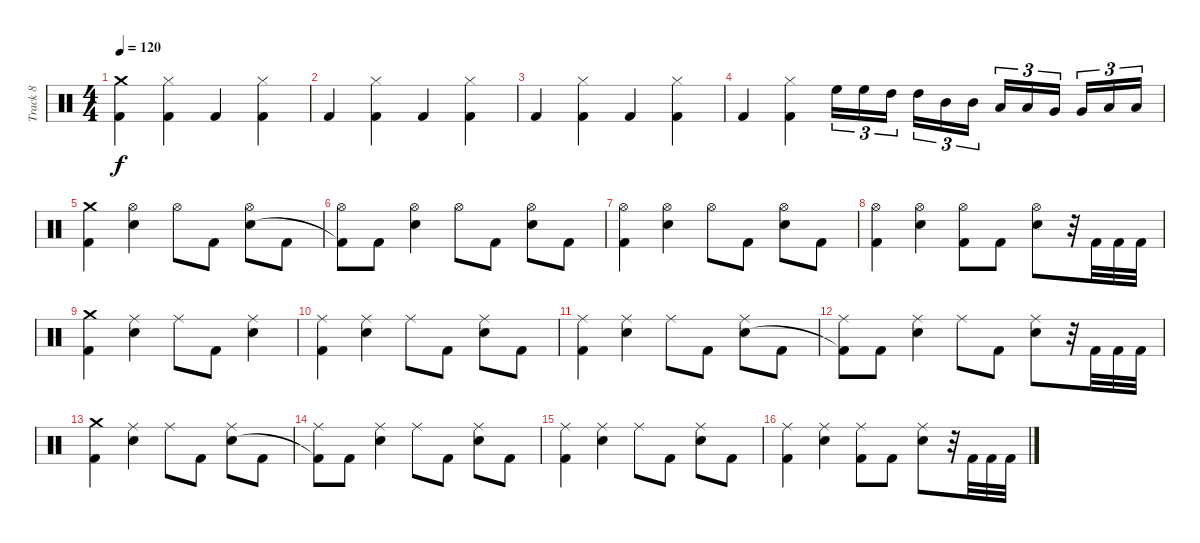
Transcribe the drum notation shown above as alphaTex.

\track ("Track 8" "Track 8") {instrument percussion}
\staff {score}
\articulation defaults
\ts (4 4)
\tempo 120
\clef neutral
\ks c
("Crash medium (hit)" "Kick (hit) 2").4{dy f} ("Hi-Hat (closed)" "Kick (hit) 2").4 "Kick (hit) 2".4 ("Hi-Hat (closed)" "Kick (hit) 2").4 |
"Kick (hit) 2".4 ("Hi-Hat (closed)" "Kick (hit) 2").4 "Kick (hit) 2".4 ("Hi-Hat (closed)" "Kick (hit) 2").4 |
"Kick (hit) 2".4 ("Hi-Hat (closed)" "Kick (hit) 2").4 "Kick (hit) 2".4 ("Hi-Hat (closed)" "Kick (hit) 2").4 |
"Kick (hit) 2".4 ("Hi-Hat (closed)" "Kick (hit) 2").4 "High Floor Tom (hit)".16{tu (3 2)} "High Floor Tom (hit)".16{tu (3 2)} "High Tom (hit)".16{tu (3 2) beam splitsecondary} "High Tom (hit)".16{tu (3 2)} "Mid Tom (hit)".16{tu (3 2)} "Mid Tom (hit)".16{tu (3 2)} "Low Tom (hit)".16{tu (3 2)} "Low Tom (hit)".16{tu (3 2)} "Very Low Tom (hit)".16{tu (3 2) beam splitsecondary} "Very Low Tom (hit)".16{tu (3 2)} "Low Floor Tom (hit)".16{tu (3 2)} "Low Floor Tom (hit)".16{tu (3 2)} |
("Crash medium (hit)" "Kick (hit) 2").4 ("Hi-Hat (open)" "Electric Snare (hit)").4 "Hi-Hat (open)".8 "Kick (hit) 2".8 ("Hi-Hat (open)" "Electric Snare (hit)").8 "Kick (hit) 2".8 |
("Hi-Hat (open)" "Kick (hit) 2"{t}).8 "Kick (hit) 2".8 ("Hi-Hat (open)" "Electric Snare (hit)").4 "Hi-Hat (open)".8 "Kick (hit) 2".8 ("Hi-Hat (open)" "Electric Snare (hit)").8 "Kick (hit) 2".8 |
("Hi-Hat (open)" "Kick (hit) 2").4 ("Hi-Hat (open)" "Electric Snare (hit)").4 "Hi-Hat (open)".8 "Kick (hit) 2".8 ("Hi-Hat (open)" "Electric Snare (hit)").8 "Kick (hit) 2".8 |
("Hi-Hat (open)" "Kick (hit) 2").4 ("Hi-Hat (open)" "Electric Snare (hit)").4 ("Hi-Hat (open)" "Kick (hit) 2").8 "Kick (hit) 2".8 ("Hi-Hat (open)" "Electric Snare (hit)").8 r.32 "Kick (hit) 2".32 "Kick (hit) 2".32 "Kick (hit) 2".32 |
("Crash medium (hit)" "Kick (hit) 2").4 ("Ride (middle)" "Electric Snare (hit)").4 "Ride (middle)".8 "Kick (hit) 2".8 ("Ride (middle)" "Electric Snare (hit)").4 |
("Ride (middle)" "Kick (hit) 2").4 ("Ride (middle)" "Electric Snare (hit)").4 "Ride (middle)".8 "Kick (hit) 2".8 ("Ride (middle)" "Electric Snare (hit)").8 "Kick (hit) 2".8 |
("Ride (middle)" "Kick (hit) 2").4 ("Ride (middle)" "Electric Snare (hit)").4 "Ride (middle)".8 "Kick (hit) 2".8 ("Ride (middle)" "Electric Snare (hit)").8 "Kick (hit) 2".8 |
("Ride (middle)" "Kick (hit) 2"{t}).8 "Kick (hit) 2".8 ("Ride (middle)" "Electric Snare (hit)").4 "Ride (middle)".8 "Kick (hit) 2".8 ("Ride (middle)" "Electric Snare (hit)").8 r.32 "Kick (hit) 2".32 "Kick (hit) 2".32 "Kick (hit) 2".32 |
("Crash medium (hit)" "Kick (hit) 2").4 ("Ride (middle)" "Electric Snare (hit)").4 "Ride (middle)".8 "Kick (hit) 2".8 ("Ride (middle)" "Electric Snare (hit)").8 "Kick (hit) 2".8 |
("Ride (middle)" "Kick (hit) 2"{t}).8 "Kick (hit) 2".8 ("Ride (middle)" "Electric Snare (hit)").4 "Ride (middle)".8 "Kick (hit) 2".8 ("Ride (middle)" "Electric Snare (hit)").8 "Kick (hit) 2".8 |
("Ride (middle)" "Kick (hit) 2").4 ("Ride (middle)" "Electric Snare (hit)").4 "Ride (middle)".8 "Kick (hit) 2".8 ("Ride (middle)" "Electric Snare (hit)").8 "Kick (hit) 2".8 |
("Ride (middle)" "Kick (hit) 2").4 ("Ride (middle)" "Electric Snare (hit)").4 ("Ride (middle)" "Kick (hit) 2").8 "Kick (hit) 2".8 ("Ride (middle)" "Electric Snare (hit)").8 r.32 "Kick (hit) 2".32 "Kick (hit) 2".32 "Kick (hit) 2".32
